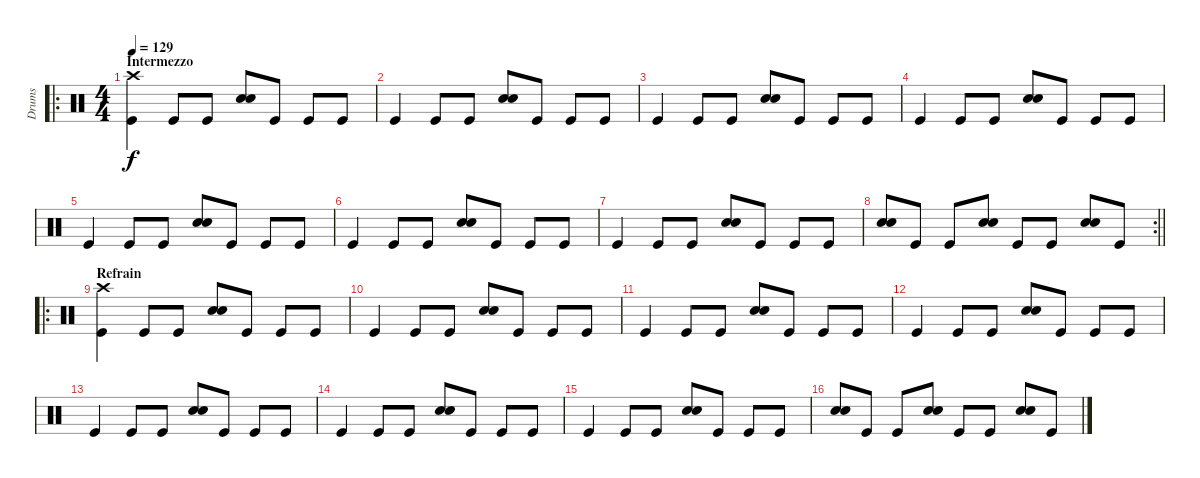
\track ("Drums" "Drums") {instrument percussion}
\staff {score}
\articulation defaults
\ro
\ts (4 4)
\section ("" "Intermezzo")
\tempo 129
\clef neutral
\ks c
("Crash high (hit)" "Kick (hit)").4{dy f} "Kick (hit)".8 "Kick (hit)".8 ("Snare (hit) 2" "Electric Snare (hit)").8 "Kick (hit)".8 "Kick (hit)".8 "Kick (hit)".8 |
"Kick (hit)".4 "Kick (hit)".8 "Kick (hit)".8 ("Snare (hit) 2" "Electric Snare (hit)").8 "Kick (hit)".8 "Kick (hit)".8 "Kick (hit)".8 |
"Kick (hit)".4 "Kick (hit)".8 "Kick (hit)".8 ("Snare (hit) 2" "Electric Snare (hit)").8 "Kick (hit)".8 "Kick (hit)".8 "Kick (hit)".8 |
"Kick (hit)".4 "Kick (hit)".8 "Kick (hit)".8 ("Snare (hit) 2" "Electric Snare (hit)").8 "Kick (hit)".8 "Kick (hit)".8 "Kick (hit)".8 |
"Kick (hit)".4 "Kick (hit)".8 "Kick (hit)".8 ("Snare (hit) 2" "Electric Snare (hit)").8 "Kick (hit)".8 "Kick (hit)".8 "Kick (hit)".8 |
"Kick (hit)".4 "Kick (hit)".8 "Kick (hit)".8 ("Snare (hit) 2" "Electric Snare (hit)").8 "Kick (hit)".8 "Kick (hit)".8 "Kick (hit)".8 |
"Kick (hit)".4 "Kick (hit)".8 "Kick (hit)".8 ("Snare (hit) 2" "Electric Snare (hit)").8 "Kick (hit)".8 "Kick (hit)".8 "Kick (hit)".8 |
\rc 2
\barLineRight lightlight
("Snare (hit) 2" "Electric Snare (hit)").8 "Kick (hit)".8 "Kick (hit)".8 ("Snare (hit) 2" "Electric Snare (hit)").8 "Kick (hit)".8 "Kick (hit)".8 ("Snare (hit) 2" "Electric Snare (hit)").8 "Kick (hit)".8 |
\ro
\section ("" "Refrain")
("Crash high (hit)" "Kick (hit)").4 "Kick (hit)".8 "Kick (hit)".8 ("Snare (hit) 2" "Electric Snare (hit)").8 "Kick (hit)".8 "Kick (hit)".8 "Kick (hit)".8 |
"Kick (hit)".4 "Kick (hit)".8 "Kick (hit)".8 ("Snare (hit) 2" "Electric Snare (hit)").8 "Kick (hit)".8 "Kick (hit)".8 "Kick (hit)".8 |
"Kick (hit)".4 "Kick (hit)".8 "Kick (hit)".8 ("Snare (hit) 2" "Electric Snare (hit)").8 "Kick (hit)".8 "Kick (hit)".8 "Kick (hit)".8 |
"Kick (hit)".4 "Kick (hit)".8 "Kick (hit)".8 ("Snare (hit) 2" "Electric Snare (hit)").8 "Kick (hit)".8 "Kick (hit)".8 "Kick (hit)".8 |
"Kick (hit)".4 "Kick (hit)".8 "Kick (hit)".8 ("Snare (hit) 2" "Electric Snare (hit)").8 "Kick (hit)".8 "Kick (hit)".8 "Kick (hit)".8 |
"Kick (hit)".4 "Kick (hit)".8 "Kick (hit)".8 ("Snare (hit) 2" "Electric Snare (hit)").8 "Kick (hit)".8 "Kick (hit)".8 "Kick (hit)".8 |
"Kick (hit)".4 "Kick (hit)".8 "Kick (hit)".8 ("Snare (hit) 2" "Electric Snare (hit)").8 "Kick (hit)".8 "Kick (hit)".8 "Kick (hit)".8 |
("Snare (hit) 2" "Electric Snare (hit)").8 "Kick (hit)".8 "Kick (hit)".8 ("Snare (hit) 2" "Electric Snare (hit)").8 "Kick (hit)".8 "Kick (hit)".8 ("Snare (hit) 2" "Electric Snare (hit)").8 "Kick (hit)".8
